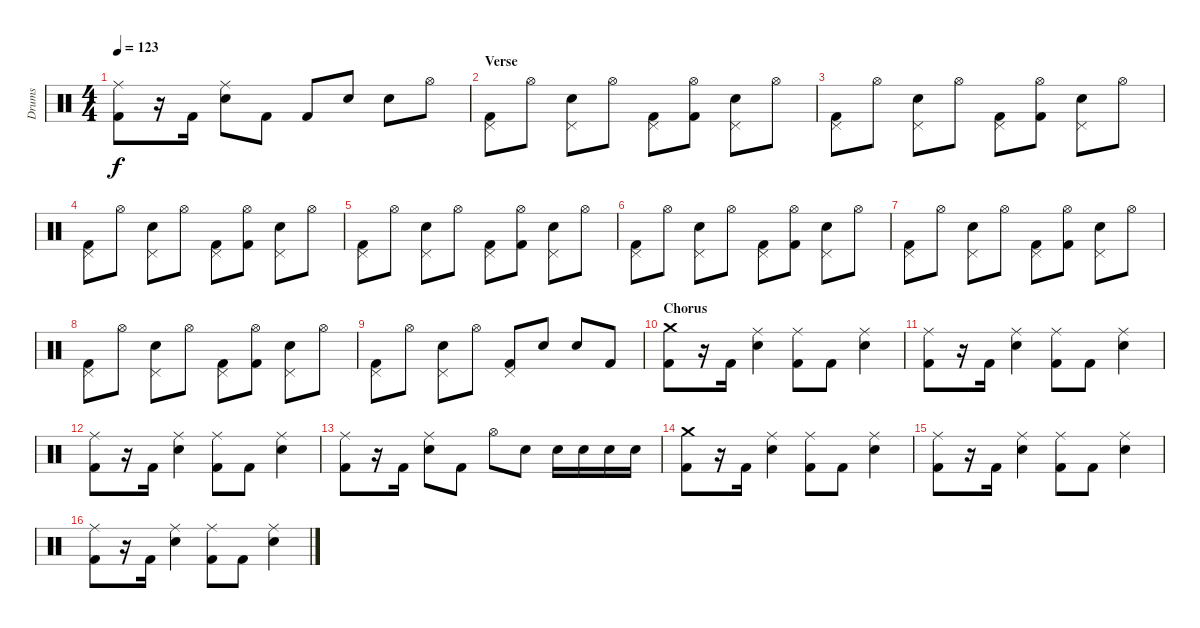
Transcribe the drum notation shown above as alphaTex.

\track ("Drums" "Drums") {instrument percussion}
\staff {score}
\articulation defaults
\ts (4 4)
\tempo 123
\clef neutral
\ks c
("Ride (middle)" "Kick (hit) 2").8{dy f} r.16 "Kick (hit) 2".16 ("Ride (middle)" "Electric Snare (hit)").8 "Kick (hit) 2".8 "Kick (hit) 2".8 "Electric Snare (hit)".8 "Electric Snare (hit)".8 "Hi-Hat (open)".8 |
\section ("" "Verse")
("Pedal Hi-Hat (hit)" "Kick (hit) 2").8 "Hi-Hat (open)".8 ("Electric Snare (hit)" "Pedal Hi-Hat (hit)").8 "Hi-Hat (open)".8 ("Kick (hit) 2" "Pedal Hi-Hat (hit)").8 ("Hi-Hat (open)" "Kick (hit) 2").8 ("Electric Snare (hit)" "Pedal Hi-Hat (hit)").8 "Hi-Hat (open)".8 |
("Pedal Hi-Hat (hit)" "Kick (hit) 2").8 "Hi-Hat (open)".8 ("Electric Snare (hit)" "Pedal Hi-Hat (hit)").8 "Hi-Hat (open)".8 ("Kick (hit) 2" "Pedal Hi-Hat (hit)").8 ("Hi-Hat (open)" "Kick (hit) 2").8 ("Electric Snare (hit)" "Pedal Hi-Hat (hit)").8 "Hi-Hat (open)".8 |
("Pedal Hi-Hat (hit)" "Kick (hit) 2").8 "Hi-Hat (open)".8 ("Electric Snare (hit)" "Pedal Hi-Hat (hit)").8 "Hi-Hat (open)".8 ("Kick (hit) 2" "Pedal Hi-Hat (hit)").8 ("Hi-Hat (open)" "Kick (hit) 2").8 ("Electric Snare (hit)" "Pedal Hi-Hat (hit)").8 "Hi-Hat (open)".8 |
("Pedal Hi-Hat (hit)" "Kick (hit) 2").8 "Hi-Hat (open)".8 ("Electric Snare (hit)" "Pedal Hi-Hat (hit)").8 "Hi-Hat (open)".8 ("Kick (hit) 2" "Pedal Hi-Hat (hit)").8 ("Hi-Hat (open)" "Kick (hit) 2").8 ("Electric Snare (hit)" "Pedal Hi-Hat (hit)").8 "Hi-Hat (open)".8 |
("Pedal Hi-Hat (hit)" "Kick (hit) 2").8 "Hi-Hat (open)".8 ("Electric Snare (hit)" "Pedal Hi-Hat (hit)").8 "Hi-Hat (open)".8 ("Kick (hit) 2" "Pedal Hi-Hat (hit)").8 ("Hi-Hat (open)" "Kick (hit) 2").8 ("Electric Snare (hit)" "Pedal Hi-Hat (hit)").8 "Hi-Hat (open)".8 |
("Pedal Hi-Hat (hit)" "Kick (hit) 2").8 "Hi-Hat (open)".8 ("Electric Snare (hit)" "Pedal Hi-Hat (hit)").8 "Hi-Hat (open)".8 ("Kick (hit) 2" "Pedal Hi-Hat (hit)").8 ("Hi-Hat (open)" "Kick (hit) 2").8 ("Electric Snare (hit)" "Pedal Hi-Hat (hit)").8 "Hi-Hat (open)".8 |
("Pedal Hi-Hat (hit)" "Kick (hit) 2").8 "Hi-Hat (open)".8 ("Electric Snare (hit)" "Pedal Hi-Hat (hit)").8 "Hi-Hat (open)".8 ("Kick (hit) 2" "Pedal Hi-Hat (hit)").8 ("Hi-Hat (open)" "Kick (hit) 2").8 ("Electric Snare (hit)" "Pedal Hi-Hat (hit)").8 "Hi-Hat (open)".8 |
("Pedal Hi-Hat (hit)" "Kick (hit) 2").8 "Hi-Hat (open)".8 ("Electric Snare (hit)" "Pedal Hi-Hat (hit)").8 "Hi-Hat (open)".8 ("Kick (hit) 2" "Pedal Hi-Hat (hit)").8 "Electric Snare (hit)".8 "Electric Snare (hit)".8 "Kick (hit) 2".8 |
\section ("" "Chorus")
("Crash medium (hit)" "Kick (hit) 2").8 r.16 "Kick (hit) 2".16 ("Ride (middle)" "Electric Snare (hit)").4 ("Ride (middle)" "Kick (hit) 2").8 "Kick (hit) 2".8 ("Ride (middle)" "Electric Snare (hit)").4 |
("Ride (middle)" "Kick (hit) 2").8 r.16 "Kick (hit) 2".16 ("Ride (middle)" "Electric Snare (hit)").4 ("Ride (middle)" "Kick (hit) 2").8 "Kick (hit) 2".8 ("Ride (middle)" "Electric Snare (hit)").4 |
("Ride (middle)" "Kick (hit) 2").8 r.16 "Kick (hit) 2".16 ("Ride (middle)" "Electric Snare (hit)").4 ("Ride (middle)" "Kick (hit) 2").8 "Kick (hit) 2".8 ("Ride (middle)" "Electric Snare (hit)").4 |
("Ride (middle)" "Kick (hit) 2").8 r.16 "Kick (hit) 2".16 ("Ride (middle)" "Electric Snare (hit)").8 "Kick (hit) 2".8 "Hi-Hat (open)".8 "Electric Snare (hit)".8 "Electric Snare (hit)".16 "Electric Snare (hit)".16 "Electric Snare (hit)".16 "Electric Snare (hit)".16 |
("Crash medium (hit)" "Kick (hit) 2").8 r.16 "Kick (hit) 2".16 ("Ride (middle)" "Electric Snare (hit)").4 ("Ride (middle)" "Kick (hit) 2").8 "Kick (hit) 2".8 ("Ride (middle)" "Electric Snare (hit)").4 |
("Ride (middle)" "Kick (hit) 2").8 r.16 "Kick (hit) 2".16 ("Ride (middle)" "Electric Snare (hit)").4 ("Ride (middle)" "Kick (hit) 2").8 "Kick (hit) 2".8 ("Ride (middle)" "Electric Snare (hit)").4 |
("Ride (middle)" "Kick (hit) 2").8 r.16 "Kick (hit) 2".16 ("Ride (middle)" "Electric Snare (hit)").4 ("Ride (middle)" "Kick (hit) 2").8 "Kick (hit) 2".8 ("Ride (middle)" "Electric Snare (hit)").4
